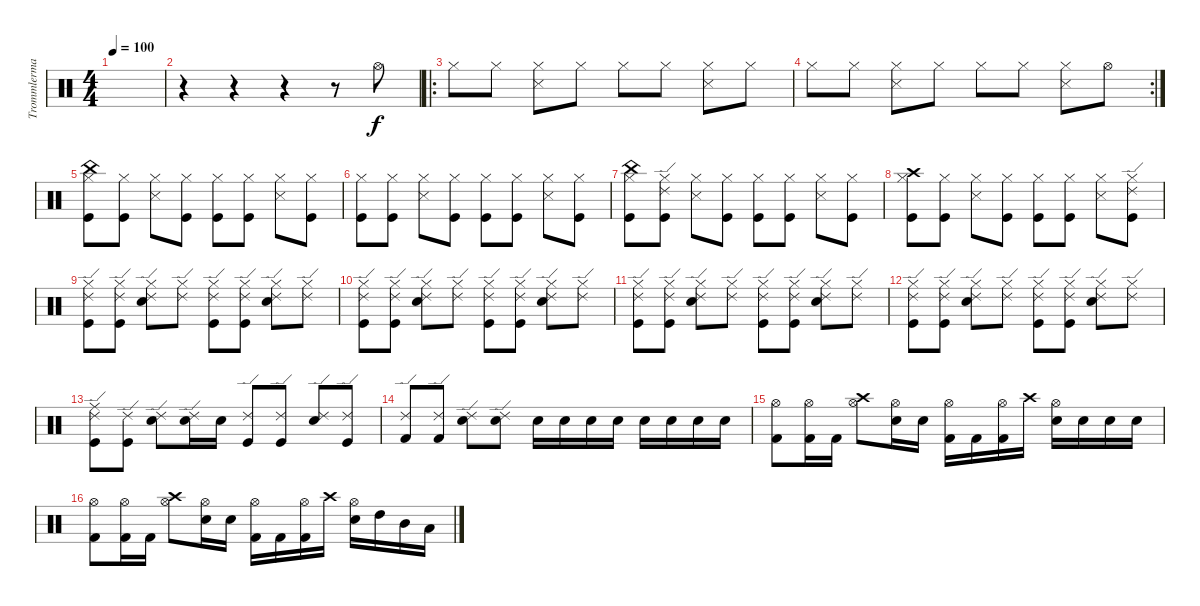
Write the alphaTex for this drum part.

\track ("Trommlermadel" "Trommlerma") {instrument percussion}
\staff {score}
\articulation defaults
\ts (4 4)
\tempo 100
\clef neutral
\ks c
|
r.4 r.4 r.4 r.8 "Hi-Hat (open)".8 |
\ro "Hi-Hat (closed)".8 "Hi-Hat (closed)".8
("Hi-Hat (closed)" "Snare (side stick) 3").8 "Hi-Hat (closed)".8 "Hi-Hat (closed)".8 "Hi-Hat (closed)".8 ("Hi-Hat (closed)" "Snare (side stick) 3").8 "Hi-Hat (closed)".8 |
\rc 2 "Hi-Hat (closed)".8 "Hi-Hat (closed)".8
("Hi-Hat (closed)" "Snare (side stick) 3").8 "Hi-Hat (closed)".8 "Hi-Hat (closed)".8 "Hi-Hat (closed)".8 ("Hi-Hat (closed)" "Snare (side stick) 3").8 "Hi-Hat (open)".8 |
("China (hit)" "Hi-Hat (closed)" "Kick (hit)").8 ("Hi-Hat (closed)" "Kick (hit)").8 ("Hi-Hat (closed)" "Snare (side stick) 3").8 ("Hi-Hat (closed)" "Kick (hit)").8 ("Hi-Hat (closed)" "Kick (hit)").8 ("Hi-Hat (closed)" "Kick (hit)").8 ("Hi-Hat (closed)" "Snare (side stick) 3").8 ("Hi-Hat (closed)" "Kick (hit)").8 |
("Hi-Hat (closed)" "Kick (hit)").8 ("Hi-Hat (closed)" "Kick (hit)").8 ("Hi-Hat (closed)" "Snare (side stick) 3").8 ("Hi-Hat (closed)" "Kick (hit)").8 ("Hi-Hat (closed)" "Kick (hit)").8 ("Hi-Hat (closed)" "Kick (hit)").8 ("Hi-Hat (closed)" "Snare (side stick) 3").8 ("Hi-Hat (closed)" "Kick (hit)").8 |
("China (hit)" "Hi-Hat (closed)" "Kick (hit)").8 ("Ride (edge) 2" "Hi-Hat (closed)" "Kick (hit)").8 ("Hi-Hat (closed)" "Snare (side stick) 3").8 ("Hi-Hat (closed)" "Kick (hit)").8 ("Hi-Hat (closed)" "Kick (hit)").8 ("Hi-Hat (closed)" "Kick (hit)").8 ("Hi-Hat (closed)" "Snare (side stick) 3").8 ("Hi-Hat (closed)" "Kick (hit)").8 |
("Crash high (hit)" "Hi-Hat (closed)" "Kick (hit)").8 ("Hi-Hat (closed)" "Kick (hit)").8 ("Hi-Hat (closed)" "Snare (side stick) 3").8 ("Hi-Hat (closed)" "Kick (hit)").8 ("Hi-Hat (closed)" "Kick (hit)").8 ("Hi-Hat (closed)" "Kick (hit)").8 ("Hi-Hat (closed)" "Snare (side stick) 3").8 ("Ride (edge) 2" "Hi-Hat (closed)" "Kick (hit)").8 |
("Ride (edge) 2" "Hi-Hat (closed)" "Kick (hit)").8 ("Ride (edge) 2" "Hi-Hat (closed)" "Kick (hit)").8 ("Ride (edge) 2" "Hi-Hat (closed)" "Electric Snare (hit)").8 ("Ride (edge) 2" "Hi-Hat (closed)").8 ("Ride (edge) 2" "Hi-Hat (closed)" "Kick (hit)").8 ("Ride (edge) 2" "Hi-Hat (closed)" "Kick (hit)").8 ("Ride (edge) 2" "Hi-Hat (closed)" "Electric Snare (hit)").8 ("Ride (edge) 2" "Hi-Hat (closed)").8 |
("Ride (edge) 2" "Hi-Hat (closed)" "Kick (hit)").8 ("Ride (edge) 2" "Hi-Hat (closed)" "Kick (hit)").8 ("Ride (edge) 2" "Hi-Hat (closed)" "Electric Snare (hit)").8 ("Ride (edge) 2" "Hi-Hat (closed)").8 ("Ride (edge) 2" "Hi-Hat (closed)" "Kick (hit)").8 ("Ride (edge) 2" "Hi-Hat (closed)" "Kick (hit)").8 ("Ride (edge) 2" "Hi-Hat (closed)" "Electric Snare (hit)").8 ("Ride (edge) 2" "Hi-Hat (closed)").8 |
("Ride (edge) 2" "Hi-Hat (closed)" "Kick (hit)").8 ("Ride (edge) 2" "Hi-Hat (closed)" "Kick (hit)").8 ("Ride (edge) 2" "Hi-Hat (closed)" "Electric Snare (hit)").8 ("Ride (edge) 2" "Hi-Hat (closed)").8 ("Ride (edge) 2" "Hi-Hat (closed)" "Kick (hit)").8 ("Ride (edge) 2" "Hi-Hat (closed)" "Kick (hit)").8 ("Ride (edge) 2" "Hi-Hat (closed)" "Electric Snare (hit)").8 ("Ride (edge) 2" "Hi-Hat (closed)").8 |
("Ride (edge) 2" "Hi-Hat (closed)" "Kick (hit)").8 ("Ride (edge) 2" "Hi-Hat (closed)" "Kick (hit)").8 ("Ride (edge) 2" "Hi-Hat (closed)" "Electric Snare (hit)").8 ("Ride (edge) 2" "Hi-Hat (closed)").8 ("Ride (edge) 2" "Hi-Hat (closed)" "Kick (hit)").8 ("Ride (edge) 2" "Hi-Hat (closed)" "Kick (hit)").8 ("Ride (edge) 2" "Hi-Hat (closed)" "Electric Snare (hit)").8 ("Ride (edge) 2" "Hi-Hat (closed)").8 |
("Ride (middle)" "Kick (hit)" "Ride (edge) 2").8 ("Kick (hit)" "Ride (edge) 2").8 ("Electric Snare (hit)" "Ride (edge) 2").8 ("Electric Snare (hit)" "Ride (edge) 2").16 "Electric Snare (hit)".16 ("Kick (hit)" "Ride (edge) 2").8 ("Kick (hit)" "Ride (edge) 2").8 ("Electric Snare (hit)" "Ride (edge) 2").8 ("Kick (hit)" "Ride (edge) 2").8 |
("Kick (hit) 2" "Ride (edge) 2").8 ("Kick (hit) 2" "Ride (edge) 2").8 ("Electric Snare (hit)" "Ride (edge) 2").8 ("Electric Snare (hit)" "Ride (edge) 2").8 "Electric Snare (hit)".16 "Electric Snare (hit)".16 "Electric Snare (hit)".16 "Electric Snare (hit)".16 "Electric Snare (hit)".16 "Electric Snare (hit)".16 "Electric Snare (hit)".16 "Electric Snare (hit)".16 |
("Kick (hit) 2" "Hi-Hat (open)").8 ("Kick (hit) 2" "Hi-Hat (open)").16 "Kick (hit) 2".16 ("Crash high (hit)" "Hi-Hat (open)").8 ("Electric Snare (hit)" "Hi-Hat (open)").16 "Electric Snare (hit)".16 ("Kick (hit) 2" "Hi-Hat (open)").16 "Kick (hit) 2".16 ("Kick (hit) 2" "Hi-Hat (open)").16 "Crash high (hit)".16 ("Electric Snare (hit)" "Hi-Hat (open)").16 "Electric Snare (hit)".16 "Electric Snare (hit)".16 "Electric Snare (hit)".16 |
("Kick (hit) 2" "Hi-Hat (open)").8 ("Kick (hit) 2" "Hi-Hat (open)").16 "Kick (hit) 2".16 ("Crash high (hit)" "Hi-Hat (open)").8 ("Electric Snare (hit)" "Hi-Hat (open)").16 "Electric Snare (hit)".16 ("Kick (hit) 2" "Hi-Hat (open)").16 "Kick (hit) 2".16 ("Kick (hit) 2" "Hi-Hat (open)").16 "Crash high (hit)".16 ("Electric Snare (hit)" "Hi-Hat (open)").16 "High Tom (hit)".16 "Mid Tom (hit)".16 "Low Tom (hit)".16
